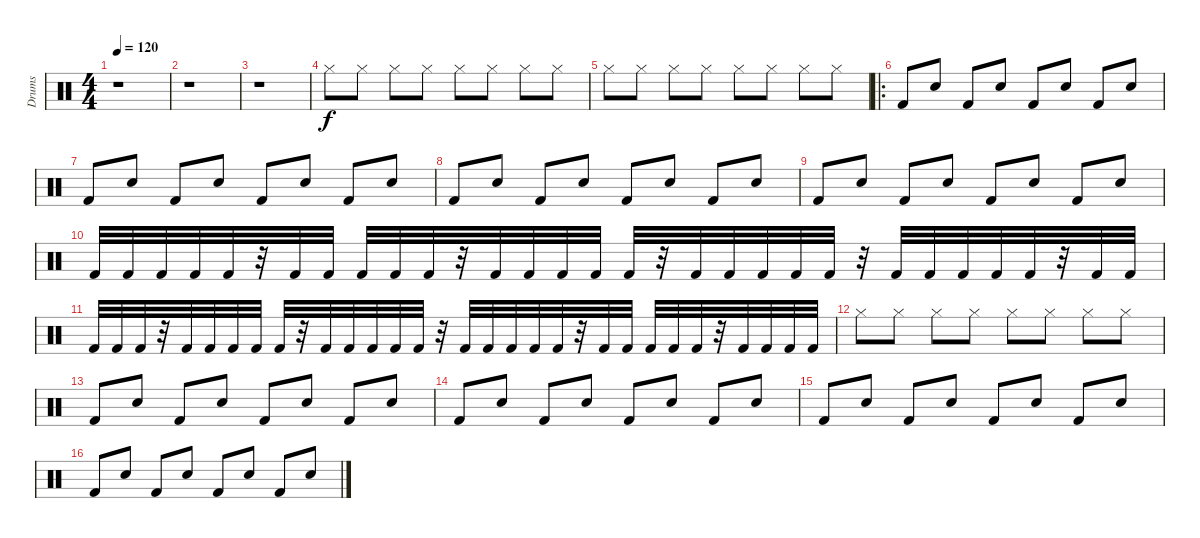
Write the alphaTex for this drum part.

\track ("Drums" "Drums") {instrument percussion}
\staff {score}
\articulation defaults
\ts (4 4)
\tempo 120
\clef neutral
\ks c
r.1{dy f} |
r.1 |
r.1 |
"Hi-Hat (closed)".8 "Hi-Hat (closed)".8 "Hi-Hat (closed)".8 "Hi-Hat (closed)".8 "Hi-Hat (closed)".8 "Hi-Hat (closed)".8 "Hi-Hat (closed)".8 "Hi-Hat (closed)".8 |
"Hi-Hat (closed)".8 "Hi-Hat (closed)".8 "Hi-Hat (closed)".8 "Hi-Hat (closed)".8 "Hi-Hat (closed)".8 "Hi-Hat (closed)".8 "Hi-Hat (closed)".8 "Hi-Hat (closed)".8 |
\ro "Kick (hit) 2".8 "Electric Snare (hit)".8 "Kick (hit) 2".8 "Electric Snare (hit)".8 "Kick (hit) 2".8 "Electric Snare (hit)".8 "Kick (hit) 2".8 "Electric Snare (hit)".8
|
"Kick (hit) 2".8 "Electric Snare (hit)".8 "Kick (hit) 2".8 "Electric Snare (hit)".8 "Kick (hit) 2".8 "Electric Snare (hit)".8 "Kick (hit) 2".8 "Electric Snare (hit)".8 |
"Kick (hit) 2".8 "Electric Snare (hit)".8 "Kick (hit) 2".8 "Electric Snare (hit)".8 "Kick (hit) 2".8 "Electric Snare (hit)".8 "Kick (hit) 2".8 "Electric Snare (hit)".8 |
"Kick (hit) 2".8 "Electric Snare (hit)".8 "Kick (hit) 2".8 "Electric Snare (hit)".8 "Kick (hit) 2".8 "Electric Snare (hit)".8 "Kick (hit) 2".8 "Electric Snare (hit)".8 |
"Kick (hit) 2".32 "Kick (hit) 2".32 "Kick (hit) 2".32 "Kick (hit) 2".32 "Kick (hit) 2".32 r.32 "Kick (hit) 2".32 "Kick (hit) 2".32 "Kick (hit) 2".32 "Kick (hit) 2".32 "Kick (hit) 2".32 r.32 "Kick (hit) 2".32 "Kick (hit) 2".32 "Kick (hit) 2".32 "Kick (hit) 2".32 "Kick (hit) 2".32 r.32 "Kick (hit) 2".32 "Kick (hit) 2".32 "Kick (hit) 2".32 "Kick (hit) 2".32 "Kick (hit) 2".32 r.32 "Kick (hit) 2".32 "Kick (hit) 2".32 "Kick (hit) 2".32 "Kick (hit) 2".32 "Kick (hit) 2".32 r.32 "Kick (hit) 2".32 "Kick (hit) 2".32 |
"Kick (hit) 2".32 "Kick (hit) 2".32 "Kick (hit) 2".32 r.32 "Kick (hit) 2".32 "Kick (hit) 2".32 "Kick (hit) 2".32 "Kick (hit) 2".32 "Kick (hit) 2".32 r.32 "Kick (hit) 2".32 "Kick (hit) 2".32 "Kick (hit) 2".32 "Kick (hit) 2".32 "Kick (hit) 2".32 r.32 "Kick (hit) 2".32 "Kick (hit) 2".32 "Kick (hit) 2".32 "Kick (hit) 2".32 "Kick (hit) 2".32 r.32 "Kick (hit) 2".32 "Kick (hit) 2".32 "Kick (hit) 2".32 "Kick (hit) 2".32 "Kick (hit) 2".32 r.32 "Kick (hit) 2".32 "Kick (hit) 2".32 "Kick (hit) 2".32 "Kick (hit) 2".32 |
"Hi-Hat (closed)".8 "Hi-Hat (closed)".8 "Hi-Hat (closed)".8 "Hi-Hat (closed)".8 "Hi-Hat (closed)".8 "Hi-Hat (closed)".8 "Hi-Hat (closed)".8 "Hi-Hat (closed)".8 |
"Kick (hit) 2".8 "Electric Snare (hit)".8 "Kick (hit) 2".8 "Electric Snare (hit)".8 "Kick (hit) 2".8 "Electric Snare (hit)".8 "Kick (hit) 2".8 "Electric Snare (hit)".8 |
"Kick (hit) 2".8 "Electric Snare (hit)".8 "Kick (hit) 2".8 "Electric Snare (hit)".8 "Kick (hit) 2".8 "Electric Snare (hit)".8 "Kick (hit) 2".8 "Electric Snare (hit)".8 |
"Kick (hit) 2".8 "Electric Snare (hit)".8 "Kick (hit) 2".8 "Electric Snare (hit)".8 "Kick (hit) 2".8 "Electric Snare (hit)".8 "Kick (hit) 2".8 "Electric Snare (hit)".8 |
"Kick (hit) 2".8 "Electric Snare (hit)".8 "Kick (hit) 2".8 "Electric Snare (hit)".8 "Kick (hit) 2".8 "Electric Snare (hit)".8 "Kick (hit) 2".8 "Electric Snare (hit)".8
